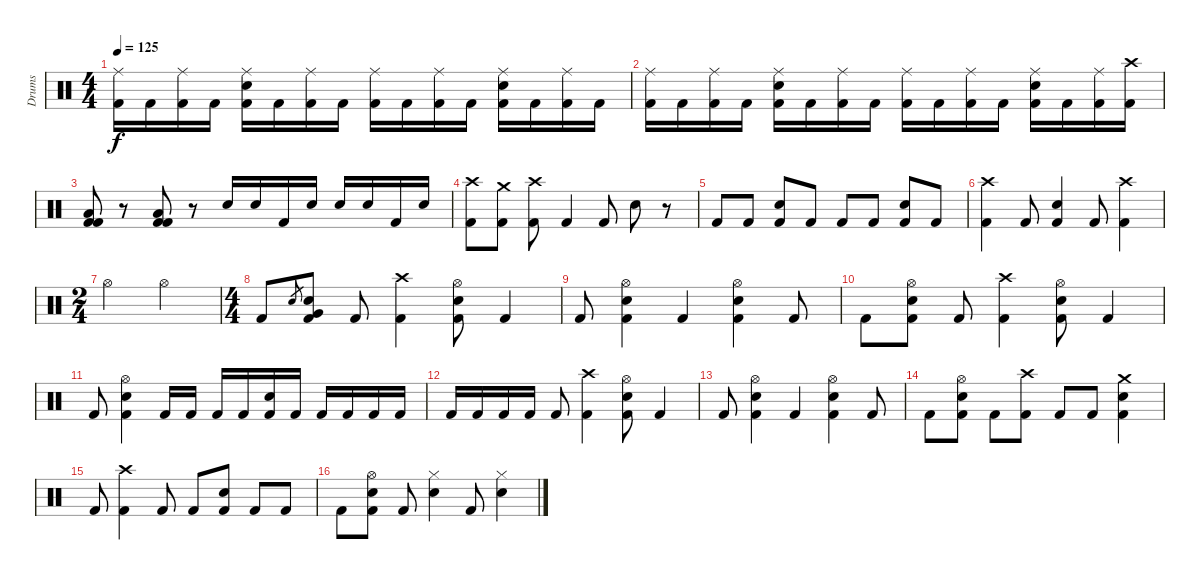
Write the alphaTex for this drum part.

\track ("Drums" "Drums") {instrument percussion}
\staff {score}
\articulation defaults
\ts (4 4)
\tempo 125
\clef neutral
\ks c
("Ride (middle)" "Kick (hit) 2").16{dy f} "Kick (hit) 2".16 ("Ride (middle)" "Kick (hit) 2").16 "Kick (hit) 2".16 ("Ride (middle)" "Electric Snare (hit)" "Kick (hit) 2").16 "Kick (hit) 2".16 ("Ride (middle)" "Kick (hit) 2").16 "Kick (hit) 2".16 ("Ride (middle)" "Kick (hit) 2").16 "Kick (hit) 2".16 ("Ride (middle)" "Kick (hit) 2").16 "Kick (hit) 2".16 ("Ride (middle)" "Electric Snare (hit)" "Kick (hit) 2").16 "Kick (hit) 2".16 ("Ride (middle)" "Kick (hit) 2").16 "Kick (hit) 2".16 |
("Ride (middle)" "Kick (hit) 2").16 "Kick (hit) 2".16 ("Ride (middle)" "Kick (hit) 2").16 "Kick (hit) 2".16 ("Ride (middle)" "Electric Snare (hit)" "Kick (hit) 2").16 "Kick (hit) 2".16 ("Ride (middle)" "Kick (hit) 2").16 "Kick (hit) 2".16 ("Ride (middle)" "Kick (hit) 2").16 "Kick (hit) 2".16 ("Ride (middle)" "Kick (hit) 2").16 "Kick (hit) 2".16 ("Ride (middle)" "Electric Snare (hit)" "Kick (hit) 2").16 "Kick (hit) 2".16 ("Ride (middle)" "Kick (hit) 2").16 ("Crash high (hit)" "Kick (hit) 2").16 |
("Low Floor Tom (hit)" "Kick (hit) 2" "Kick (hit) 2").8 r.8 ("Low Floor Tom (hit)" "Kick (hit) 2" "Kick (hit) 2").8 r.8 "Electric Snare (hit)".16 "Electric Snare (hit)".16 "Kick (hit) 2".16 "Electric Snare (hit)".16 "Electric Snare (hit)".16 "Electric Snare (hit)".16 "Kick (hit) 2".16 "Electric Snare (hit)".16 |
("Crash high (hit)" "Kick (hit) 2").8 ("Crash medium (hit)" "Kick (hit) 2").8 ("Crash high (hit)" "Kick (hit) 2").8 "Kick (hit) 2".4 "Kick (hit) 2".8 "Electric Snare (hit)".8 r.8 |
"Kick (hit) 2".8 "Kick (hit) 2".8 ("Electric Snare (hit)" "Kick (hit) 2").8 "Kick (hit) 2".8 "Kick (hit) 2".8 "Kick (hit) 2".8 ("Electric Snare (hit)" "Kick (hit) 2").8 "Kick (hit) 2".8 |
("Crash high (hit)" "Kick (hit) 2").4 "Kick (hit) 2".8 ("Electric Snare (hit)" "Kick (hit) 2").4 "Kick (hit) 2".8 ("Crash high (hit)" "Kick (hit) 2").4 |
\ts (2 4)
"Hi-Hat (open)".4 "Hi-Hat (open)".4 |
\ts (4 4)
"Kick (hit) 2".8 "Electric Snare (hit)".8{gr} ("Very Low Tom (hit)" "Electric Snare (hit)" "Kick (hit) 2").8 "Kick (hit) 2".8 ("Crash high (hit)" "Kick (hit) 2").4 ("Hi-Hat (open)" "Electric Snare (hit)" "Kick (hit) 2").8 "Kick (hit) 2".4 |
"Kick (hit) 2".8 ("Hi-Hat (open)" "Electric Snare (hit)" "Kick (hit) 2").4 "Kick (hit) 2".4 ("Hi-Hat (open)" "Electric Snare (hit)" "Kick (hit) 2").4 "Kick (hit) 2".8 |
"Kick (hit) 2".8 ("Hi-Hat (open)" "Electric Snare (hit)" "Kick (hit) 2").8 "Kick (hit) 2".8 ("Crash high (hit)" "Kick (hit) 2").4 ("Hi-Hat (open)" "Electric Snare (hit)" "Kick (hit) 2").8 "Kick (hit) 2".4 |
"Kick (hit) 2".8 ("Hi-Hat (open)" "Electric Snare (hit)" "Kick (hit) 2").4 "Kick (hit) 2".16 "Kick (hit) 2".16 "Kick (hit) 2".16 "Kick (hit) 2".16 ("Electric Snare (hit)" "Kick (hit) 2").16 "Kick (hit) 2".16 "Kick (hit) 2".16 "Kick (hit) 2".16 "Kick (hit) 2".16 "Kick (hit) 2".16 |
"Kick (hit) 2".16 "Kick (hit) 2".16 "Kick (hit) 2".16 "Kick (hit) 2".16 "Kick (hit) 2".8 ("Crash high (hit)" "Kick (hit) 2").4 ("Hi-Hat (open)" "Electric Snare (hit)" "Kick (hit) 2").8 "Kick (hit) 2".4 |
"Kick (hit) 2".8 ("Hi-Hat (open)" "Electric Snare (hit)" "Kick (hit) 2").4 "Kick (hit) 2".4 ("Hi-Hat (open)" "Electric Snare (hit)" "Kick (hit) 2").4 "Kick (hit) 2".8 |
"Kick (hit) 2".8 ("Hi-Hat (open)" "Electric Snare (hit)" "Kick (hit) 2").8 "Kick (hit) 2".8 ("Crash high (hit)" "Kick (hit) 2").8 "Kick (hit) 2".8 "Kick (hit) 2".8 ("Crash medium (hit)" "Electric Snare (hit)" "Kick (hit) 2").4 |
"Kick (hit) 2".8 ("Crash high (hit)" "Kick (hit) 2").4 "Kick (hit) 2".8 "Kick (hit) 2".8 ("Electric Snare (hit)" "Kick (hit) 2").8 "Kick (hit) 2".8 "Kick (hit) 2".8 |
"Kick (hit) 2".8 ("Hi-Hat (open)" "Electric Snare (hit)" "Kick (hit) 2").8 "Kick (hit) 2".8 ("Hi-Hat (closed)" "Electric Snare (hit)").4 "Kick (hit) 2".8 ("Hi-Hat (closed)" "Electric Snare (hit)").4
